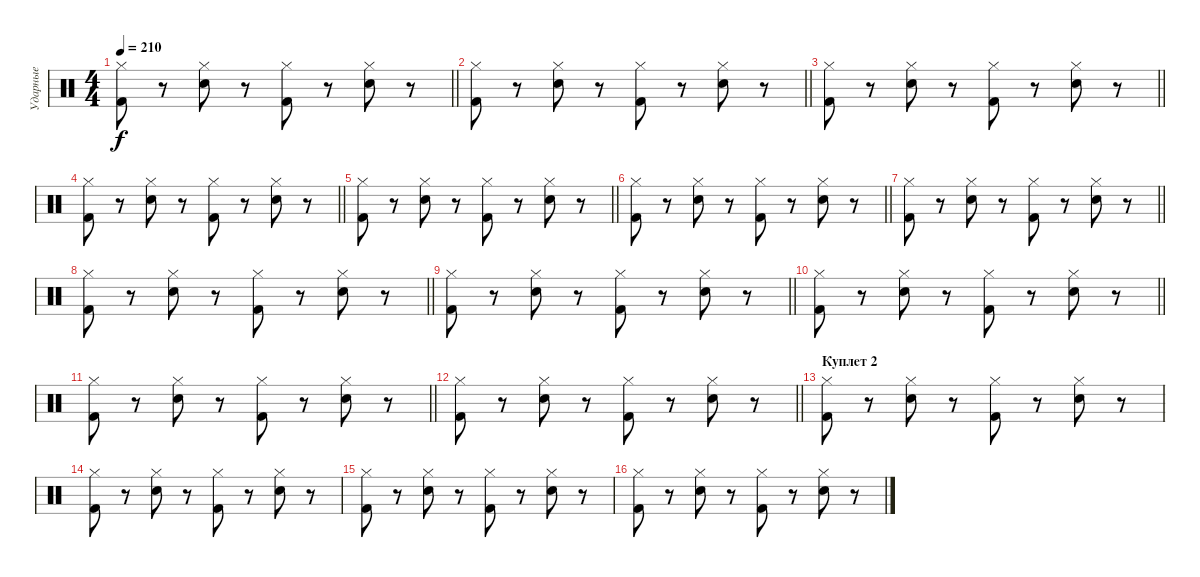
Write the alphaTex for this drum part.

\track ("Ударные" "Ударные") {instrument percussion}
\staff {score}
\articulation defaults
\ts (4 4)
\tempo 210
\clef neutral
\barLineRight lightlight
\ks c
("Kick (hit) 2" "Hi-Hat (closed)").8{dy f} r.8 ("Snare (hit) 2" "Hi-Hat (closed)").8 r.8 ("Kick (hit) 2" "Hi-Hat (closed)").8 r.8 ("Snare (hit) 2" "Hi-Hat (closed)").8 r.8 |
\barLineRight lightlight
("Kick (hit) 2" "Hi-Hat (closed)").8 r.8 ("Snare (hit) 2" "Hi-Hat (closed)").8 r.8 ("Kick (hit) 2" "Hi-Hat (closed)").8 r.8 ("Snare (hit) 2" "Hi-Hat (closed)").8 r.8 |
\barLineRight lightlight
("Kick (hit) 2" "Hi-Hat (closed)").8 r.8 ("Snare (hit) 2" "Hi-Hat (closed)").8 r.8 ("Kick (hit) 2" "Hi-Hat (closed)").8 r.8 ("Snare (hit) 2" "Hi-Hat (closed)").8 r.8 |
\barLineRight lightlight
("Kick (hit) 2" "Hi-Hat (closed)").8 r.8 ("Snare (hit) 2" "Hi-Hat (closed)").8 r.8 ("Kick (hit) 2" "Hi-Hat (closed)").8 r.8 ("Snare (hit) 2" "Hi-Hat (closed)").8 r.8 |
\barLineRight lightlight
("Kick (hit) 2" "Hi-Hat (closed)").8 r.8 ("Snare (hit) 2" "Hi-Hat (closed)").8 r.8 ("Kick (hit) 2" "Hi-Hat (closed)").8 r.8 ("Snare (hit) 2" "Hi-Hat (closed)").8 r.8 |
\barLineRight lightlight
("Kick (hit) 2" "Hi-Hat (closed)").8 r.8 ("Snare (hit) 2" "Hi-Hat (closed)").8 r.8 ("Kick (hit) 2" "Hi-Hat (closed)").8 r.8 ("Snare (hit) 2" "Hi-Hat (closed)").8 r.8 |
\barLineRight lightlight
("Kick (hit) 2" "Hi-Hat (closed)").8 r.8 ("Snare (hit) 2" "Hi-Hat (closed)").8 r.8 ("Kick (hit) 2" "Hi-Hat (closed)").8 r.8 ("Snare (hit) 2" "Hi-Hat (closed)").8 r.8 |
\barLineRight lightlight
("Kick (hit) 2" "Hi-Hat (closed)").8 r.8 ("Snare (hit) 2" "Hi-Hat (closed)").8 r.8 ("Kick (hit) 2" "Hi-Hat (closed)").8 r.8 ("Snare (hit) 2" "Hi-Hat (closed)").8 r.8 |
\barLineRight lightlight
("Kick (hit) 2" "Hi-Hat (closed)").8 r.8 ("Snare (hit) 2" "Hi-Hat (closed)").8 r.8 ("Kick (hit) 2" "Hi-Hat (closed)").8 r.8 ("Snare (hit) 2" "Hi-Hat (closed)").8 r.8 |
\barLineRight lightlight
("Kick (hit) 2" "Hi-Hat (closed)").8 r.8 ("Snare (hit) 2" "Hi-Hat (closed)").8 r.8 ("Kick (hit) 2" "Hi-Hat (closed)").8 r.8 ("Snare (hit) 2" "Hi-Hat (closed)").8 r.8 |
\barLineRight lightlight
("Kick (hit) 2" "Hi-Hat (closed)").8 r.8 ("Snare (hit) 2" "Hi-Hat (closed)").8 r.8 ("Kick (hit) 2" "Hi-Hat (closed)").8 r.8 ("Snare (hit) 2" "Hi-Hat (closed)").8 r.8 |
\barLineRight lightlight
("Kick (hit) 2" "Hi-Hat (closed)").8 r.8 ("Snare (hit) 2" "Hi-Hat (closed)").8 r.8 ("Kick (hit) 2" "Hi-Hat (closed)").8 r.8 ("Snare (hit) 2" "Hi-Hat (closed)").8 r.8 |
\section ("" "Куплет 2")
("Kick (hit) 2" "Hi-Hat (closed)").8 r.8 ("Snare (hit) 2" "Hi-Hat (closed)").8 r.8 ("Kick (hit) 2" "Hi-Hat (closed)").8 r.8 ("Snare (hit) 2" "Hi-Hat (closed)").8 r.8 |
("Kick (hit) 2" "Hi-Hat (closed)").8 r.8 ("Snare (hit) 2" "Hi-Hat (closed)").8 r.8 ("Kick (hit) 2" "Hi-Hat (closed)").8 r.8 ("Snare (hit) 2" "Hi-Hat (closed)").8 r.8 |
("Kick (hit) 2" "Hi-Hat (closed)").8 r.8 ("Snare (hit) 2" "Hi-Hat (closed)").8 r.8 ("Kick (hit) 2" "Hi-Hat (closed)").8 r.8 ("Snare (hit) 2" "Hi-Hat (closed)").8 r.8 |
("Kick (hit) 2" "Hi-Hat (closed)").8 r.8 ("Snare (hit) 2" "Hi-Hat (closed)").8 r.8 ("Kick (hit) 2" "Hi-Hat (closed)").8 r.8 ("Snare (hit) 2" "Hi-Hat (closed)").8 r.8
